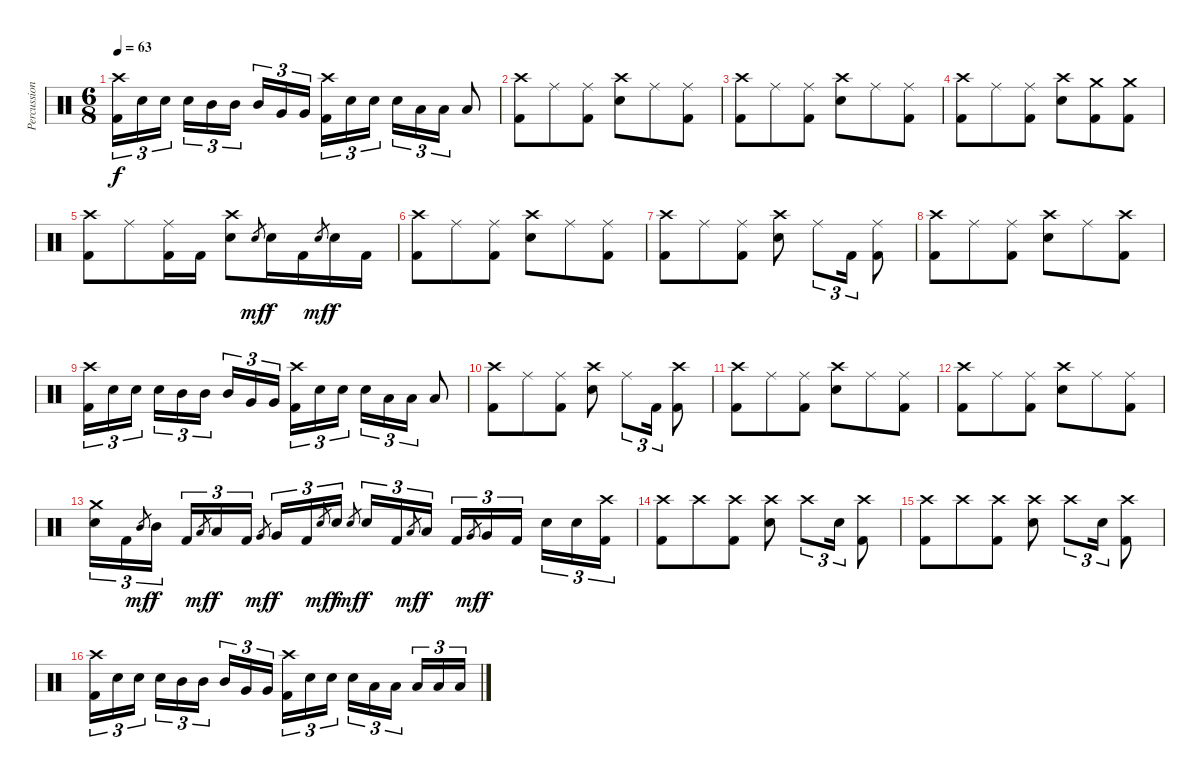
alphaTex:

\track ("Percussion" "Percussion") {instrument percussion}
\staff {score}
\articulation defaults
\ts (6 8)
\tempo 63
\clef neutral
\ks c
("Crash high (hit)" "Kick (hit) 2").16{tu (3 2) dy f} "Electric Snare (hit)".16{tu (3 2)} "Electric Snare (hit)".16{tu (3 2)} "Electric Snare (hit)".16{tu (3 2)} "Mid Tom (hit)".16{tu (3 2)} "Mid Tom (hit)".16{tu (3 2)} "Mid Tom (hit)".16{tu (3 2)} "Very Low Tom (hit)".16{tu (3 2)} "Very Low Tom (hit)".16{tu (3 2)} ("Crash high (hit)" "Kick (hit) 2").16{tu (3 2)} "Electric Snare (hit)".16{tu (3 2)} "Electric Snare (hit)".16{tu (3 2)} "Electric Snare (hit)".16{tu (3 2)} "Low Tom (hit)".16{tu (3 2)} "Low Tom (hit)".16{tu (3 2)} "Low Tom (hit)".8 |
("Crash high (hit)" "Kick (hit) 2").8 "Ride (middle)".8 ("Ride (middle)" "Kick (hit) 2").8 ("Crash high (hit)" "Electric Snare (hit)").8 "Ride (middle)".8 ("Ride (middle)" "Kick (hit) 2").8 |
("Crash high (hit)" "Kick (hit) 2").8 "Ride (middle)".8 ("Ride (middle)" "Kick (hit) 2").8 ("Crash high (hit)" "Electric Snare (hit)").8 "Ride (middle)".8 ("Ride (middle)" "Kick (hit) 2").8 |
("Crash high (hit)" "Kick (hit) 2").8 "Ride (middle)".8 ("Ride (middle)" "Kick (hit) 2").8 ("Crash high (hit)" "Electric Snare (hit)").8 ("Crash medium (hit)" "Kick (hit) 2").8 ("Crash medium (hit)" "Kick (hit) 2").8 |
("Crash high (hit)" "Kick (hit) 2").8 "Ride (middle)".8 ("Ride (middle)" "Kick (hit) 2").16 "Kick (hit) 2".16 ("Crash high (hit)" "Electric Snare (hit)").8 "Electric Snare (hit)".8{gr dy mf} "Electric Snare (hit)".16{dy f} "Kick (hit) 2".16 "Electric Snare (hit)".8{gr dy mf} "Electric Snare (hit)".16{dy f} "Kick (hit) 2".16 |
("Crash high (hit)" "Kick (hit) 2").8 "Ride (middle)".8 ("Ride (middle)" "Kick (hit) 2").8 ("Crash high (hit)" "Electric Snare (hit)").8 "Ride (middle)".8 ("Ride (middle)" "Kick (hit) 2").8 |
("Crash high (hit)" "Kick (hit) 2").8 "Ride (middle)".8 ("Ride (middle)" "Kick (hit) 2").8 ("Crash high (hit)" "Electric Snare (hit)").8 "Ride (middle)".8{tu (3 2)} "Kick (hit) 2".16{tu (3 2)} ("Ride (middle)" "Kick (hit) 2").8 |
("Crash high (hit)" "Kick (hit) 2").8 "Ride (middle)".8 ("Ride (middle)" "Kick (hit) 2").8 ("Crash high (hit)" "Electric Snare (hit)").8 "Ride (middle)".8 ("Crash high (hit)" "Kick (hit) 2").8 |
("Crash high (hit)" "Kick (hit) 2").16{tu (3 2)} "Electric Snare (hit)".16{tu (3 2)} "Electric Snare (hit)".16{tu (3 2)} "Electric Snare (hit)".16{tu (3 2)} "Mid Tom (hit)".16{tu (3 2)} "Mid Tom (hit)".16{tu (3 2)} "Mid Tom (hit)".16{tu (3 2)} "Very Low Tom (hit)".16{tu (3 2)} "Very Low Tom (hit)".16{tu (3 2)} ("Crash high (hit)" "Kick (hit) 2").16{tu (3 2)} "Electric Snare (hit)".16{tu (3 2)} "Electric Snare (hit)".16{tu (3 2)} "Electric Snare (hit)".16{tu (3 2)} "Low Tom (hit)".16{tu (3 2)} "Low Tom (hit)".16{tu (3 2)} "Low Tom (hit)".8 |
("Crash high (hit)" "Kick (hit) 2").8 "Ride (middle)".8 ("Ride (middle)" "Kick (hit) 2").8 ("Crash high (hit)" "Electric Snare (hit)").8 "Ride (middle)".8{tu (3 2)} "Kick (hit) 2".16{tu (3 2)} ("Crash high (hit)" "Kick (hit) 2").8 |
("Crash high (hit)" "Kick (hit) 2").8 "Ride (middle)".8 ("Ride (middle)" "Kick (hit) 2").8 ("Crash high (hit)" "Electric Snare (hit)").8 "Ride (middle)".8 ("Ride (middle)" "Kick (hit) 2").8 |
("Crash high (hit)" "Kick (hit) 2").8 "Ride (middle)".8 ("Ride (middle)" "Kick (hit) 2").8 ("Crash high (hit)" "Electric Snare (hit)").8 "Ride (middle)".8 ("Ride (middle)" "Kick (hit) 2").8 |
("Crash medium (hit)" "Electric Snare (hit)").16{tu (3 2)} "Kick (hit) 2".16{tu (3 2)} "Mid Tom (hit)".8{gr dy mf} "Mid Tom (hit)".16{tu (3 2) dy f} "Kick (hit) 2".16{tu (3 2)} "Low Tom (hit)".8{gr dy mf} "Low Tom (hit)".16{tu (3 2) dy f} "Kick (hit) 2".16{tu (3 2)} "Very Low Tom (hit)".8{gr dy mf} "Very Low Tom (hit)".16{tu (3 2) dy f} "Kick (hit) 2".16{tu (3 2)} "Electric Snare (hit)".8{gr dy mf} "Electric Snare (hit)".16{tu (3 2) dy f} "Electric Snare (hit)".8{gr dy mf} "Electric Snare (hit)".16{tu (3 2) dy f} "Kick (hit) 2".16{tu (3 2)} "Low Tom (hit)".8{gr dy mf} "Low Tom (hit)".16{tu (3 2) dy f} "Kick (hit) 2".16{tu (3 2)} "Very Low Tom (hit)".8{gr dy mf} "Very Low Tom (hit)".16{tu (3 2) dy f} "Kick (hit) 2".16{tu (3 2)} "Electric Snare (hit)".16{tu (3 2)} "Electric Snare (hit)".16{tu (3 2)} ("Crash high (hit)" "Kick (hit) 2").16{tu (3 2)} |
("Crash high (hit)" "Kick (hit) 2").8 "Crash high (hit)".8 ("Crash high (hit)" "Kick (hit) 2").8 ("Crash high (hit)" "Electric Snare (hit)").8 "Crash high (hit)".8{tu (3 2)} "Electric Snare (hit)".16{tu (3 2)} ("Crash high (hit)" "Kick (hit) 2").8 |
("Crash high (hit)" "Kick (hit) 2").8 "Crash high (hit)".8 ("Crash high (hit)" "Kick (hit) 2").8 ("Crash high (hit)" "Electric Snare (hit)").8 "Crash high (hit)".8{tu (3 2)} "Electric Snare (hit)".16{tu (3 2)} ("Crash high (hit)" "Kick (hit) 2").8 |
("Crash high (hit)" "Kick (hit) 2").16{tu (3 2)} "Electric Snare (hit)".16{tu (3 2)} "Electric Snare (hit)".16{tu (3 2)} "Electric Snare (hit)".16{tu (3 2)} "Mid Tom (hit)".16{tu (3 2)} "Mid Tom (hit)".16{tu (3 2)} "Mid Tom (hit)".16{tu (3 2)} "Very Low Tom (hit)".16{tu (3 2)} "Very Low Tom (hit)".16{tu (3 2)} ("Crash high (hit)" "Kick (hit) 2").16{tu (3 2)} "Electric Snare (hit)".16{tu (3 2)} "Electric Snare (hit)".16{tu (3 2)} "Electric Snare (hit)".16{tu (3 2)} "Low Tom (hit)".16{tu (3 2)} "Low Tom (hit)".16{tu (3 2)} "Low Tom (hit)".16{tu (3 2)} "Low Floor Tom (hit)".16{tu (3 2)} "Low Floor Tom (hit)".16{tu (3 2)}
